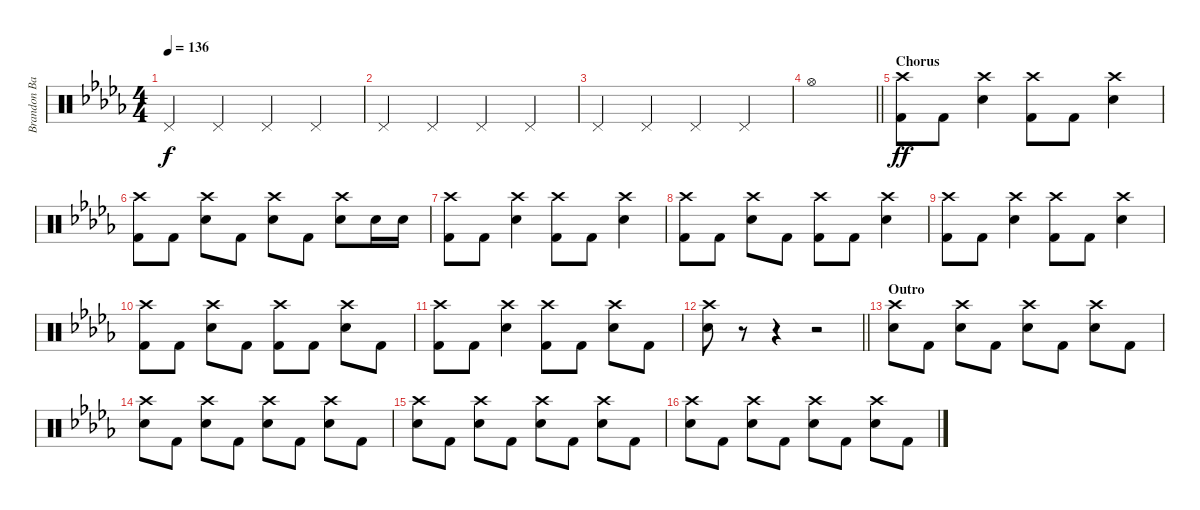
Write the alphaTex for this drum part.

\track ("Brandon Barnes - Drums" "Brandon Ba") {instrument percussion}
\staff {score}
\articulation defaults
\ts (4 4)
\tempo 136
\clef neutral
\ks db "Pedal Hi-Hat (hit)".4{dy f} "Pedal Hi-Hat (hit)".4 "Pedal Hi-Hat (hit)".4 "Pedal Hi-Hat (hit)".4
|
"Pedal Hi-Hat (hit)".4 "Pedal Hi-Hat (hit)".4 "Pedal Hi-Hat (hit)".4 "Pedal Hi-Hat (hit)".4 |
"Pedal Hi-Hat (hit)".4 "Pedal Hi-Hat (hit)".4 "Pedal Hi-Hat (hit)".4 "Pedal Hi-Hat (hit)".4 |
\barLineRight lightlight "Hi-Hat (open)".1
|
\section ("" "Chorus")
("Crash high (hit)" "Kick (hit) 2").8{dy ff} "Kick (hit) 2".8 ("Snare (hit) 2" "Crash high (hit)").4 ("Kick (hit) 2" "Crash high (hit)").8 "Kick (hit) 2".8 ("Snare (hit) 2" "Crash high (hit)").4 |
("Kick (hit) 2" "Crash high (hit)").8 "Kick (hit) 2".8 ("Snare (hit) 2" "Crash high (hit)").8 "Kick (hit) 2".8 ("Snare (hit) 2" "Crash high (hit)").8 "Kick (hit) 2".8 ("Snare (hit) 2" "Crash high (hit)").8 "Snare (hit) 2".16 "Snare (hit) 2".16 |
("Kick (hit) 2" "Crash high (hit)").8 "Kick (hit) 2".8 ("Snare (hit) 2" "Crash high (hit)").4 ("Kick (hit) 2" "Crash high (hit)").8 "Kick (hit) 2".8 ("Snare (hit) 2" "Crash high (hit)").4 |
("Kick (hit) 2" "Crash high (hit)").8 "Kick (hit) 2".8 ("Snare (hit) 2" "Crash high (hit)").8 "Kick (hit) 2".8 ("Kick (hit) 2" "Crash high (hit)").8 "Kick (hit) 2".8 ("Snare (hit) 2" "Crash high (hit)").4 |
("Crash high (hit)" "Kick (hit) 2").8 "Kick (hit) 2".8 ("Snare (hit) 2" "Crash high (hit)").4 ("Kick (hit) 2" "Crash high (hit)").8 "Kick (hit) 2".8 ("Snare (hit) 2" "Crash high (hit)").4 |
("Kick (hit) 2" "Crash high (hit)").8 "Kick (hit) 2".8 ("Snare (hit) 2" "Crash high (hit)").8 "Kick (hit) 2".8 ("Kick (hit) 2" "Crash high (hit)").8 "Kick (hit) 2".8 ("Snare (hit) 2" "Crash high (hit)").8 "Kick (hit) 2".8 |
("Kick (hit) 2" "Crash high (hit)").8 "Kick (hit) 2".8 ("Snare (hit) 2" "Crash high (hit)").4 ("Kick (hit) 2" "Crash high (hit)").8 "Kick (hit) 2".8 ("Snare (hit) 2" "Crash high (hit)").8 "Kick (hit) 2".8 |
\barLineRight lightlight
("Snare (hit) 2" "Crash high (hit)").8 r.8 r.4 r.2 |
\section ("" "Outro")
("Crash high (hit)" "Snare (hit) 2").8 "Kick (hit) 2".8 ("Crash high (hit)" "Snare (hit) 2").8 "Kick (hit) 2".8 ("Crash high (hit)" "Snare (hit) 2").8 "Kick (hit) 2".8 ("Crash high (hit)" "Snare (hit) 2").8 "Kick (hit) 2".8 |
("Crash high (hit)" "Snare (hit) 2").8 "Kick (hit) 2".8 ("Crash high (hit)" "Snare (hit) 2").8 "Kick (hit) 2".8 ("Crash high (hit)" "Snare (hit) 2").8 "Kick (hit) 2".8 ("Crash high (hit)" "Snare (hit) 2").8 "Kick (hit) 2".8 |
("Crash high (hit)" "Snare (hit) 2").8 "Kick (hit) 2".8 ("Crash high (hit)" "Snare (hit) 2").8 "Kick (hit) 2".8 ("Crash high (hit)" "Snare (hit) 2").8 "Kick (hit) 2".8 ("Crash high (hit)" "Snare (hit) 2").8 "Kick (hit) 2".8 |
("Crash high (hit)" "Snare (hit) 2").8 "Kick (hit) 2".8 ("Crash high (hit)" "Snare (hit) 2").8 "Kick (hit) 2".8 ("Crash high (hit)" "Snare (hit) 2").8 "Kick (hit) 2".8 ("Crash high (hit)" "Snare (hit) 2").8 "Kick (hit) 2".8
